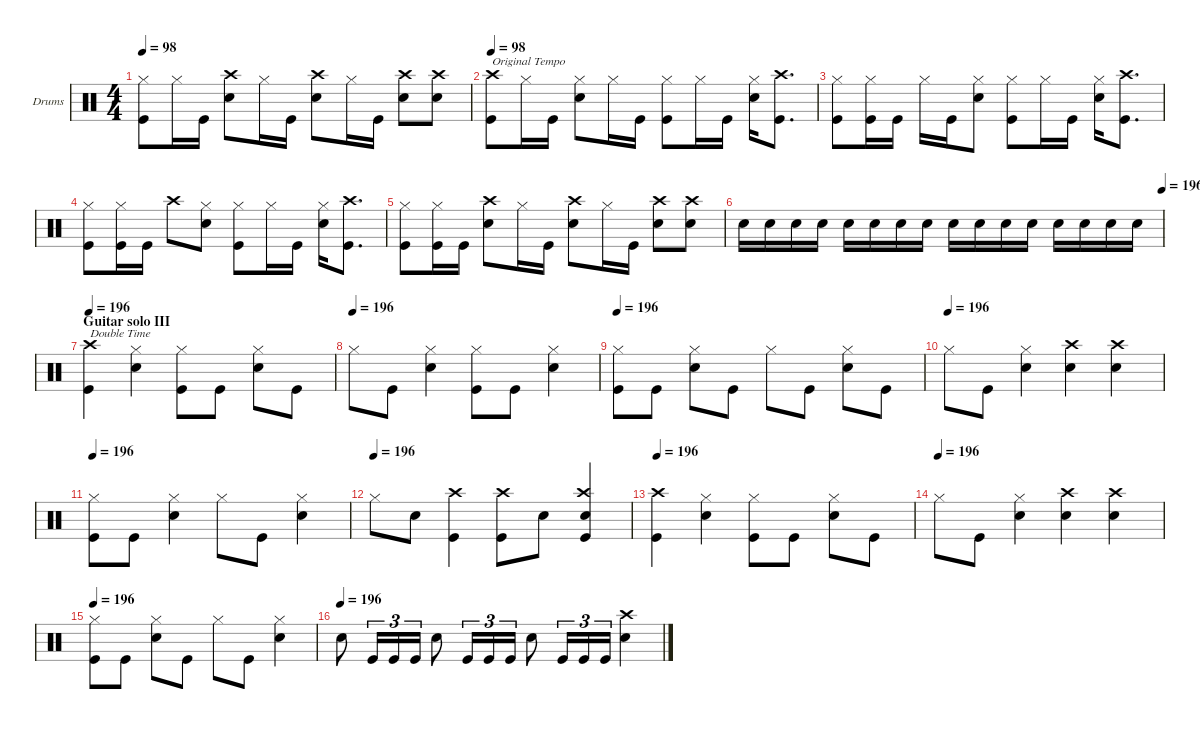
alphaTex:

\hideDynamics
\bracketExtendMode groupsimilarinstruments
\firstSystemTrackNameOrientation horizontal
\otherSystemsTrackNameOrientation horizontal
\track ("Drumkit" "Drums") {multiBarRest instrument percussion}
\staff {score}
\articulation defaults
\ts (4 4)
\tempo 98
\clef neutral
\ks c
("Kick (hit)" "Hi-Hat (closed)").8{dy f} "Hi-Hat (closed)".16 "Kick (hit)".16 ("Crash high (hit)" "Snare (hit) 2").8 "Hi-Hat (closed)".16 "Kick (hit)".16 ("Snare (hit) 2" "Crash high (hit)").8 "Hi-Hat (closed)".16 "Kick (hit)".16 ("Crash high (hit)" "Snare (hit) 2").8 ("Crash high (hit)" "Snare (hit) 2").8 |
\tempo 98
("Crash high (hit)" "Kick (hit)").8{txt "Original Tempo"} "Hi-Hat (closed)".16 "Kick (hit)".16 ("Snare (hit) 2" "Hi-Hat (closed)").8 "Hi-Hat (closed)".16 "Kick (hit)".16 ("Hi-Hat (closed)" "Kick (hit)").8 "Hi-Hat (closed)".16 "Kick (hit)".16 ("Snare (hit) 2" "Hi-Hat (closed)").16 ("Crash high (hit)" "Kick (hit)").8{d} |
("Kick (hit)" "Hi-Hat (closed)").8 ("Kick (hit)" "Hi-Hat (closed)").16 "Kick (hit)".16 "Hi-Hat (closed)".16 "Kick (hit)".16 ("Snare (hit) 2" "Hi-Hat (closed)").8 ("Kick (hit)" "Hi-Hat (closed)").8 "Hi-Hat (closed)".16 "Kick (hit)".16 ("Snare (hit) 2" "Hi-Hat (closed)").16 ("Kick (hit)" "Crash high (hit)").8{d} |
("Kick (hit)" "Hi-Hat (closed)").8 ("Kick (hit)" "Hi-Hat (closed)").16 "Kick (hit)".16 "Crash high (hit)".8 ("Snare (hit) 2" "Hi-Hat (closed)").8 ("Kick (hit)" "Hi-Hat (closed)").8 "Hi-Hat (closed)".16 "Kick (hit)".16 ("Snare (hit) 2" "Hi-Hat (closed)").16 ("Kick (hit)" "Crash high (hit)").8{d} |
("Kick (hit)" "Hi-Hat (closed)").8 ("Kick (hit)" "Hi-Hat (closed)").16 "Kick (hit)".16 ("Crash high (hit)" "Snare (hit) 2").8 "Hi-Hat (closed)".16 "Kick (hit)".16 ("Snare (hit) 2" "Crash high (hit)").8 "Hi-Hat (closed)".16 "Kick (hit)".16 ("Crash high (hit)" "Snare (hit) 2").8 ("Crash high (hit)" "Snare (hit) 2").8 |
\tempo (196 1)
"Snare (hit) 2".16 "Snare (hit) 2".16 "Snare (hit) 2".16 "Snare (hit) 2".16 "Snare (hit) 2".16 "Snare (hit) 2".16 "Snare (hit) 2".16 "Snare (hit) 2".16 "Snare (hit) 2".16 "Snare (hit) 2".16 "Snare (hit) 2".16 "Snare (hit) 2".16 "Snare (hit) 2".16 "Snare (hit) 2".16 "Snare (hit) 2".16 "Snare (hit) 2".16 |
\section ("" "Guitar solo III")
\tempo 196
("Kick (hit)" "Crash high (hit)").4{txt "Double Time"} ("Hi-Hat (closed)" "Snare (hit) 2").4 ("Kick (hit)" "Hi-Hat (closed)").8 "Kick (hit)".8 ("Snare (hit) 2" "Hi-Hat (closed)").8 "Kick (hit)".8 |
\tempo (196)
"Hi-Hat (closed)".8 "Kick (hit)".8 ("Snare (hit) 2" "Hi-Hat (closed)").4 ("Hi-Hat (closed)" "Kick (hit)").8 "Kick (hit)".8 ("Snare (hit) 2" "Hi-Hat (closed)").4 |
\tempo 196
("Kick (hit)" "Hi-Hat (closed)").8 "Kick (hit)".8 ("Snare (hit) 2" "Hi-Hat (closed)").8 "Kick (hit)".8 "Hi-Hat (closed)".8 "Kick (hit)".8 ("Snare (hit) 2" "Hi-Hat (closed)").8 "Kick (hit)".8 |
\tempo (196)
"Hi-Hat (closed)".8 "Kick (hit)".8 ("Snare (hit) 2" "Hi-Hat (closed)").4 ("Crash high (hit)" "Snare (hit) 2").4 ("Crash high (hit)" "Snare (hit) 2").4 |
\tempo 196
("Kick (hit)" "Hi-Hat (closed)").8 "Kick (hit)".8 ("Snare (hit) 2" "Hi-Hat (closed)").4 "Hi-Hat (closed)".8 "Kick (hit)".8 ("Snare (hit) 2" "Hi-Hat (closed)").4 |
\tempo (196)
"Hi-Hat (closed)".8 "Snare (hit) 2".8 ("Crash high (hit)" "Kick (hit)").4 ("Kick (hit)" "Crash high (hit)").8 "Snare (hit) 2".8 ("Snare (hit) 2" "Crash high (hit)" "Kick (hit)").4 |
\tempo 196
("Kick (hit)" "Crash high (hit)").4 ("Hi-Hat (closed)" "Snare (hit) 2").4 ("Kick (hit)" "Hi-Hat (closed)").8 "Kick (hit)".8 ("Snare (hit) 2" "Hi-Hat (closed)").8 "Kick (hit)".8 |
\tempo (196)
"Hi-Hat (closed)".8 "Kick (hit)".8 ("Snare (hit) 2" "Hi-Hat (closed)").4 ("Crash high (hit)" "Snare (hit) 2").4 ("Crash high (hit)" "Snare (hit) 2").4 |
\tempo 196
("Kick (hit)" "Hi-Hat (closed)").8 "Kick (hit)".8 ("Snare (hit) 2" "Hi-Hat (closed)").8 "Kick (hit)".8 "Hi-Hat (closed)".8 "Kick (hit)".8 ("Snare (hit) 2" "Hi-Hat (closed)").4 |
\tempo (196)
"Snare (hit) 2".8 "Kick (hit)".16{tu (3 2)} "Kick (hit)".16{tu (3 2)} "Kick (hit)".16{tu (3 2)} "Snare (hit) 2".8 "Kick (hit)".16{tu (3 2)} "Kick (hit)".16{tu (3 2)} "Kick (hit)".16{tu (3 2)} "Snare (hit) 2".8 "Kick (hit)".16{tu (3 2)} "Kick (hit)".16{tu (3 2)} "Kick (hit)".16{tu (3 2)} ("Crash high (hit)" "Snare (hit) 2").4
